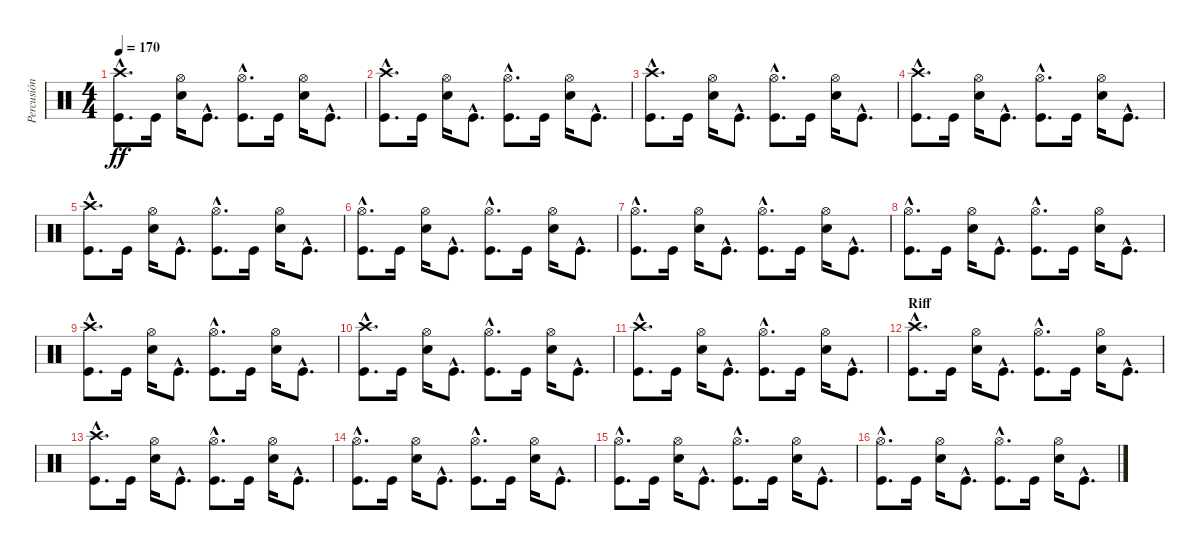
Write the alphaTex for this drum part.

\track ("Percusión" "Percusión") {instrument percussion}
\staff {score}
\articulation defaults
\ts (4 4)
\tempo 170
\clef neutral
\ks c
("Crash high (hit)"{hac} "Kick (hit)"{hac}).8{d dy ff} "Kick (hit)".16 ("Hi-Hat (open)" "Snare (hit) 2").16 "Kick (hit)"{hac}.8{d} ("Hi-Hat (open)"{hac} "Kick (hit)"{hac}).8{d} "Kick (hit)".16 ("Hi-Hat (open)" "Snare (hit) 2").16 "Kick (hit)"{hac}.8{d} |
("Crash high (hit)"{hac} "Kick (hit)"{hac}).8{d} "Kick (hit)".16 ("Hi-Hat (open)" "Snare (hit) 2").16 "Kick (hit)"{hac}.8{d} ("Hi-Hat (open)"{hac} "Kick (hit)"{hac}).8{d} "Kick (hit)".16 ("Hi-Hat (open)" "Snare (hit) 2").16 "Kick (hit)"{hac}.8{d} |
("Crash high (hit)"{hac} "Kick (hit)"{hac}).8{d} "Kick (hit)".16 ("Hi-Hat (open)" "Snare (hit) 2").16 "Kick (hit)"{hac}.8{d} ("Hi-Hat (open)"{hac} "Kick (hit)"{hac}).8{d} "Kick (hit)".16 ("Hi-Hat (open)" "Snare (hit) 2").16 "Kick (hit)"{hac}.8{d} |
("Crash high (hit)"{hac} "Kick (hit)"{hac}).8{d} "Kick (hit)".16 ("Hi-Hat (open)" "Snare (hit) 2").16 "Kick (hit)"{hac}.8{d} ("Hi-Hat (open)"{hac} "Kick (hit)"{hac}).8{d} "Kick (hit)".16 ("Hi-Hat (open)" "Snare (hit) 2").16 "Kick (hit)"{hac}.8{d} |
("Crash high (hit)"{hac} "Kick (hit)"{hac}).8{d} "Kick (hit)".16 ("Hi-Hat (open)" "Snare (hit) 2").16 "Kick (hit)"{hac}.8{d} ("Hi-Hat (open)"{hac} "Kick (hit)"{hac}).8{d} "Kick (hit)".16 ("Hi-Hat (open)" "Snare (hit) 2").16 "Kick (hit)"{hac}.8{d} |
("Hi-Hat (open)"{hac} "Kick (hit)"{hac}).8{d} "Kick (hit)".16 ("Hi-Hat (open)" "Snare (hit) 2").16 "Kick (hit)"{hac}.8{d} ("Hi-Hat (open)"{hac} "Kick (hit)"{hac}).8{d} "Kick (hit)".16 ("Hi-Hat (open)" "Snare (hit) 2").16 "Kick (hit)"{hac}.8{d} |
("Hi-Hat (open)"{hac} "Kick (hit)"{hac}).8{d} "Kick (hit)".16 ("Hi-Hat (open)" "Snare (hit) 2").16 "Kick (hit)"{hac}.8{d} ("Hi-Hat (open)"{hac} "Kick (hit)"{hac}).8{d} "Kick (hit)".16 ("Hi-Hat (open)" "Snare (hit) 2").16 "Kick (hit)"{hac}.8{d} |
("Hi-Hat (open)"{hac} "Kick (hit)"{hac}).8{d} "Kick (hit)".16 ("Hi-Hat (open)" "Snare (hit) 2").16 "Kick (hit)"{hac}.8{d} ("Hi-Hat (open)"{hac} "Kick (hit)"{hac}).8{d} "Kick (hit)".16 ("Hi-Hat (open)" "Snare (hit) 2").16 "Kick (hit)"{hac}.8{d} |
("Crash high (hit)"{hac} "Kick (hit)"{hac}).8{d} "Kick (hit)".16 ("Hi-Hat (open)" "Snare (hit) 2").16 "Kick (hit)"{hac}.8{d} ("Hi-Hat (open)"{hac} "Kick (hit)"{hac}).8{d} "Kick (hit)".16 ("Hi-Hat (open)" "Snare (hit) 2").16 "Kick (hit)"{hac}.8{d} |
("Crash high (hit)"{hac} "Kick (hit)"{hac}).8{d} "Kick (hit)".16 ("Hi-Hat (open)" "Snare (hit) 2").16 "Kick (hit)"{hac}.8{d} ("Hi-Hat (open)"{hac} "Kick (hit)"{hac}).8{d} "Kick (hit)".16 ("Hi-Hat (open)" "Snare (hit) 2").16 "Kick (hit)"{hac}.8{d} |
("Crash high (hit)"{hac} "Kick (hit)"{hac}).8{d} "Kick (hit)".16 ("Hi-Hat (open)" "Snare (hit) 2").16 "Kick (hit)"{hac}.8{d} ("Hi-Hat (open)"{hac} "Kick (hit)"{hac}).8{d} "Kick (hit)".16 ("Hi-Hat (open)" "Snare (hit) 2").16 "Kick (hit)"{hac}.8{d} |
\section ("" "Riff")
("Crash high (hit)"{hac} "Kick (hit)"{hac}).8{d} "Kick (hit)".16 ("Hi-Hat (open)" "Snare (hit) 2").16 "Kick (hit)"{hac}.8{d} ("Hi-Hat (open)"{hac} "Kick (hit)"{hac}).8{d} "Kick (hit)".16 ("Hi-Hat (open)" "Snare (hit) 2").16 "Kick (hit)"{hac}.8{d} |
("Crash high (hit)"{hac} "Kick (hit)"{hac}).8{d} "Kick (hit)".16 ("Hi-Hat (open)" "Snare (hit) 2").16 "Kick (hit)"{hac}.8{d} ("Hi-Hat (open)"{hac} "Kick (hit)"{hac}).8{d} "Kick (hit)".16 ("Hi-Hat (open)" "Snare (hit) 2").16 "Kick (hit)"{hac}.8{d} |
("Hi-Hat (open)"{hac} "Kick (hit)"{hac}).8{d} "Kick (hit)".16 ("Hi-Hat (open)" "Snare (hit) 2").16 "Kick (hit)"{hac}.8{d} ("Hi-Hat (open)"{hac} "Kick (hit)"{hac}).8{d} "Kick (hit)".16 ("Hi-Hat (open)" "Snare (hit) 2").16 "Kick (hit)"{hac}.8{d} |
("Hi-Hat (open)"{hac} "Kick (hit)"{hac}).8{d} "Kick (hit)".16 ("Hi-Hat (open)" "Snare (hit) 2").16 "Kick (hit)"{hac}.8{d} ("Hi-Hat (open)"{hac} "Kick (hit)"{hac}).8{d} "Kick (hit)".16 ("Hi-Hat (open)" "Snare (hit) 2").16 "Kick (hit)"{hac}.8{d} |
("Hi-Hat (open)"{hac} "Kick (hit)"{hac}).8{d} "Kick (hit)".16 ("Hi-Hat (open)" "Snare (hit) 2").16 "Kick (hit)"{hac}.8{d} ("Hi-Hat (open)"{hac} "Kick (hit)"{hac}).8{d} "Kick (hit)".16 ("Hi-Hat (open)" "Snare (hit) 2").16 "Kick (hit)"{hac}.8{d}
